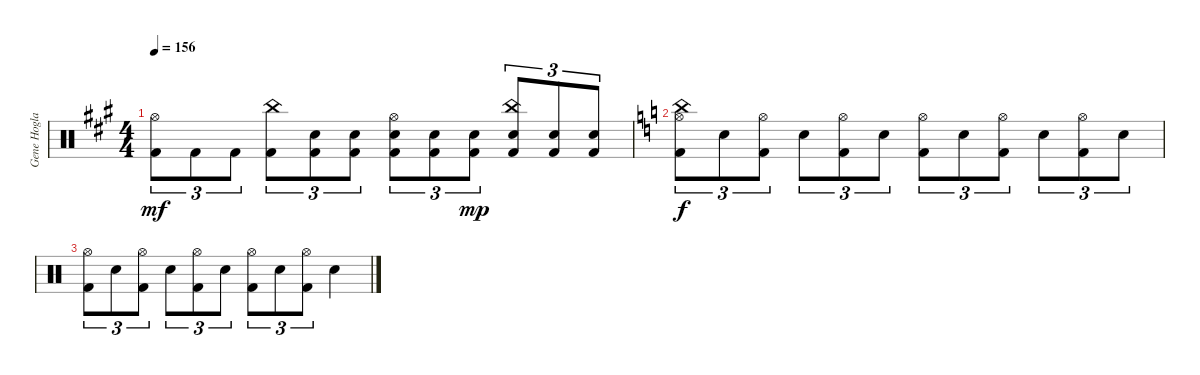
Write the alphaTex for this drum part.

\track ("Gene Hoglan" "Gene Hogla") {instrument percussion}
\staff {score}
\articulation defaults
\ts (4 4)
\tempo 156
\clef neutral
\ks a
("Hi-Hat (open)" "Kick (hit) 2").8{tu (3 2) dy mf} "Kick (hit) 2".8{tu (3 2)} "Kick (hit) 2".8{tu (3 2)} ("China (hit)" "Kick (hit) 2").8{tu (3 2)} ("Electric Snare (hit)" "Kick (hit) 2").8{tu (3 2)} ("Electric Snare (hit)" "Kick (hit) 2").8{tu (3 2)} ("Hi-Hat (open)" "Electric Snare (hit)" "Kick (hit) 2").8{tu (3 2)} ("Electric Snare (hit)" "Kick (hit) 2").8{tu (3 2)} ("Electric Snare (hit)" "Kick (hit) 2").8{tu (3 2) dy mp} ("China (hit)" "Electric Snare (hit)" "Kick (hit) 2").8{tu (3 2)} ("Electric Snare (hit)" "Kick (hit) 2").8{tu (3 2)} ("Electric Snare (hit)" "Kick (hit) 2").8{tu (3 2)} |
\ks c
("Hi-Hat (open)" "China (hit)" "Kick (hit) 2").8{tu (3 2) dy f} "Electric Snare (hit)".8{tu (3 2)} ("Hi-Hat (open)" "Kick (hit) 2").8{tu (3 2)} "Electric Snare (hit)".8{tu (3 2)} ("Hi-Hat (open)" "Kick (hit) 2").8{tu (3 2)} "Electric Snare (hit)".8{tu (3 2)} ("Hi-Hat (open)" "Kick (hit) 2").8{tu (3 2)} "Electric Snare (hit)".8{tu (3 2)} ("Hi-Hat (open)" "Kick (hit) 2").8{tu (3 2)} "Electric Snare (hit)".8{tu (3 2)} ("Hi-Hat (open)" "Kick (hit) 2").8{tu (3 2)} "Electric Snare (hit)".8{tu (3 2)} |
("Hi-Hat (open)" "Kick (hit) 2").8{tu (3 2)} "Electric Snare (hit)".8{tu (3 2)} ("Hi-Hat (open)" "Kick (hit) 2").8{tu (3 2)} "Electric Snare (hit)".8{tu (3 2)} ("Hi-Hat (open)" "Kick (hit) 2").8{tu (3 2)} "Electric Snare (hit)".8{tu (3 2)} ("Hi-Hat (open)" "Kick (hit) 2").8{tu (3 2)} "Electric Snare (hit)".8{tu (3 2)} ("Hi-Hat (open)" "Kick (hit) 2").8{tu (3 2)} "Electric Snare (hit)".4
